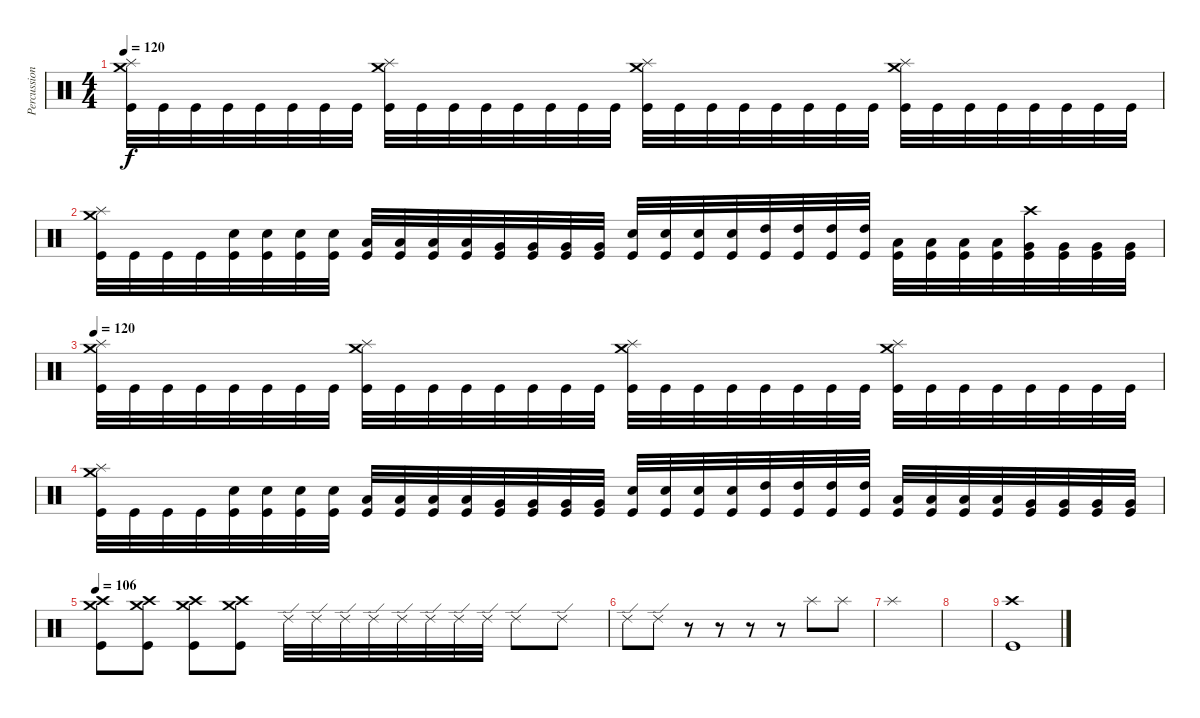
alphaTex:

\track ("Percussion" "Percussion") {instrument percussion}
\staff {score}
\articulation defaults
\ts (4 4)
\tempo 120
\clef neutral
\ks c
("Crash medium (hit)" "Splash (hit)" "Kick (hit)").32{dy f} "Kick (hit)".32 "Kick (hit)".32 "Kick (hit)".32 "Kick (hit)".32 "Kick (hit)".32 "Kick (hit)".32 "Kick (hit)".32 ("Crash medium (hit)" "Splash (hit)" "Kick (hit)").32 "Kick (hit)".32 "Kick (hit)".32 "Kick (hit)".32 "Kick (hit)".32 "Kick (hit)".32 "Kick (hit)".32 "Kick (hit)".32 ("Crash medium (hit)" "Splash (hit)" "Kick (hit)").32 "Kick (hit)".32 "Kick (hit)".32 "Kick (hit)".32 "Kick (hit)".32 "Kick (hit)".32 "Kick (hit)".32 "Kick (hit)".32 ("Crash medium (hit)" "Splash (hit)" "Kick (hit)").32 "Kick (hit)".32 "Kick (hit)".32 "Kick (hit)".32 "Kick (hit)".32 "Kick (hit)".32 "Kick (hit)".32 "Kick (hit)".32 |
("Crash medium (hit)" "Splash (hit)" "Kick (hit)").32 "Kick (hit)".32 "Kick (hit)".32 "Kick (hit)".32 ("Electric Snare (hit)" "Kick (hit)").32 ("Electric Snare (hit)" "Kick (hit)").32 ("Electric Snare (hit)" "Kick (hit)").32 ("Electric Snare (hit)" "Kick (hit)").32 ("Low Tom (hit)" "Kick (hit)").32 ("Low Tom (hit)" "Kick (hit)").32 ("Low Tom (hit)" "Kick (hit)").32 ("Low Tom (hit)" "Kick (hit)").32 ("Very Low Tom (hit)" "Kick (hit)").32 ("Very Low Tom (hit)" "Kick (hit)").32 ("Very Low Tom (hit)" "Kick (hit)").32 ("Very Low Tom (hit)" "Kick (hit)").32 ("Electric Snare (hit)" "Kick (hit)").32 ("Electric Snare (hit)" "Kick (hit)").32 ("Electric Snare (hit)" "Kick (hit)").32 ("Electric Snare (hit)" "Kick (hit)").32 ("High Tom (hit)" "Kick (hit)").32 ("High Tom (hit)" "Kick (hit)").32 ("High Tom (hit)" "Kick (hit)").32 ("High Tom (hit)" "Kick (hit)").32 ("Low Tom (hit)" "Kick (hit)").32 ("Low Tom (hit)" "Kick (hit)").32 ("Low Tom (hit)" "Kick (hit)").32 ("Low Tom (hit)" "Kick (hit)").32 ("Crash high (hit)" "Very Low Tom (hit)" "Kick (hit)").32 ("Very Low Tom (hit)" "Kick (hit)").32 ("Very Low Tom (hit)" "Kick (hit)").32 ("Very Low Tom (hit)" "Kick (hit)").32 |
\tempo 120
("Crash medium (hit)" "Splash (hit)" "Kick (hit)").32 "Kick (hit)".32 "Kick (hit)".32 "Kick (hit)".32 "Kick (hit)".32 "Kick (hit)".32 "Kick (hit)".32 "Kick (hit)".32 ("Crash medium (hit)" "Splash (hit)" "Kick (hit)").32 "Kick (hit)".32 "Kick (hit)".32 "Kick (hit)".32 "Kick (hit)".32 "Kick (hit)".32 "Kick (hit)".32 "Kick (hit)".32 ("Crash medium (hit)" "Splash (hit)" "Kick (hit)").32 "Kick (hit)".32 "Kick (hit)".32 "Kick (hit)".32 "Kick (hit)".32 "Kick (hit)".32 "Kick (hit)".32 "Kick (hit)".32 ("Crash medium (hit)" "Splash (hit)" "Kick (hit)").32 "Kick (hit)".32 "Kick (hit)".32 "Kick (hit)".32 "Kick (hit)".32 "Kick (hit)".32 "Kick (hit)".32 "Kick (hit)".32 |
("Crash medium (hit)" "Splash (hit)" "Kick (hit)").32 "Kick (hit)".32 "Kick (hit)".32 "Kick (hit)".32 ("Electric Snare (hit)" "Kick (hit)").32 ("Electric Snare (hit)" "Kick (hit)").32 ("Electric Snare (hit)" "Kick (hit)").32 ("Electric Snare (hit)" "Kick (hit)").32 ("Low Tom (hit)" "Kick (hit)").32 ("Low Tom (hit)" "Kick (hit)").32 ("Low Tom (hit)" "Kick (hit)").32 ("Low Tom (hit)" "Kick (hit)").32 ("Very Low Tom (hit)" "Kick (hit)").32 ("Very Low Tom (hit)" "Kick (hit)").32 ("Very Low Tom (hit)" "Kick (hit)").32 ("Very Low Tom (hit)" "Kick (hit)").32 ("Snare (hit) 2" "Kick (hit)").32 ("Snare (hit) 2" "Kick (hit)").32 ("Snare (hit) 2" "Kick (hit)").32 ("Snare (hit) 2" "Kick (hit)").32 ("High Tom (hit)" "Kick (hit)").32 ("High Tom (hit)" "Kick (hit)").32 ("High Tom (hit)" "Kick (hit)").32 ("High Tom (hit)" "Kick (hit)").32 ("Low Tom (hit)" "Kick (hit)").32 ("Low Tom (hit)" "Kick (hit)").32 ("Low Tom (hit)" "Kick (hit)").32 ("Low Tom (hit)" "Kick (hit)").32 ("Very Low Tom (hit)" "Kick (hit)").32 ("Very Low Tom (hit)" "Kick (hit)").32 ("Very Low Tom (hit)" "Kick (hit)").32 ("Very Low Tom (hit)" "Kick (hit)").32 |
\tempo 106
("Crash high (hit)" "Crash medium (hit)" "Kick (hit)").8 ("Crash high (hit)" "Crash medium (hit)" "Kick (hit)").8 ("Crash high (hit)" "Crash medium (hit)" "Kick (hit)").8 ("Crash high (hit)" "Crash medium (hit)" "Kick (hit)").8 "Ride (edge) 2".32 "Ride (edge) 2".32 "Ride (edge) 2".32 "Ride (edge) 2".32 "Ride (edge) 2".32 "Ride (edge) 2".32 "Ride (edge) 2".32 "Ride (edge) 2".32 "Ride (edge) 2".8 "Ride (edge) 2".8 |
"Ride (edge) 2".8 "Ride (edge) 2".8 r.8 r.8 r.8 r.8 "Splash (hit)".8 "Splash (hit)".8 |
"Splash (hit)".1 |
|
("Crash high (hit)" "Kick (hit)").1
